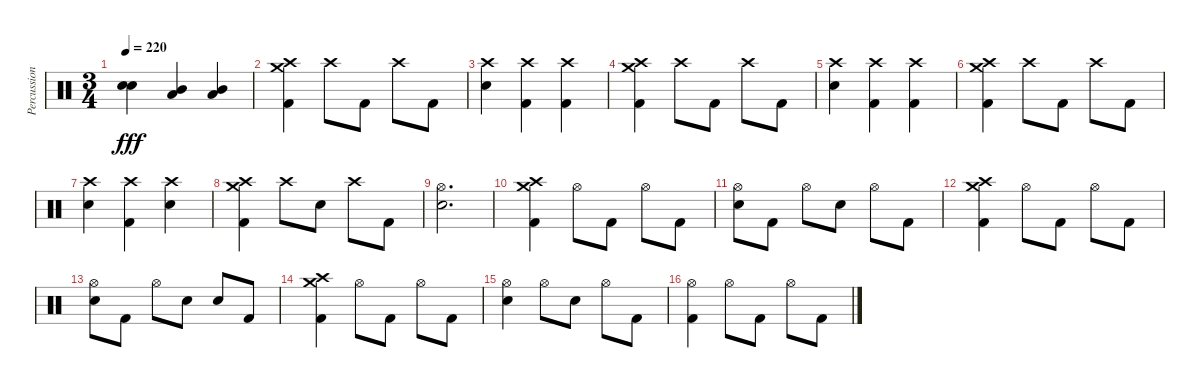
\track ("Percussions" "Percussion") {instrument percussion}
\staff {score}
\articulation defaults
\ts (3 4)
\tempo 220
\clef neutral
\ks c
("Electric Snare (hit)" "Electric Snare (hit)").4{bd 240 dy fff} ("Mid Tom (hit)" "Low Tom (hit)").4{bd 240} ("Low Floor Tom (hit)" "Mid Tom (hit)").4{bd 240} |
("Crash high (hit)" "Crash medium (hit)" "Kick (hit) 2").4{bd 240} "Crash high (hit)".8 "Kick (hit) 2".8 "Crash high (hit)".8 "Kick (hit) 2".8 |
("Crash high (hit)" "Electric Snare (hit)").4 ("Crash high (hit)" "Kick (hit) 2").4 ("Crash high (hit)" "Kick (hit) 2").4 |
("Crash high (hit)" "Crash medium (hit)" "Kick (hit) 2").4 "Crash high (hit)".8 "Kick (hit) 2".8 "Crash high (hit)".8 "Kick (hit) 2".8 |
("Crash high (hit)" "Electric Snare (hit)").4 ("Crash high (hit)" "Kick (hit) 2").4 ("Crash high (hit)" "Kick (hit) 2").4 |
("Crash high (hit)" "Crash medium (hit)" "Kick (hit) 2").4 "Crash high (hit)".8 "Kick (hit) 2".8 "Crash high (hit)".8 "Kick (hit) 2".8 |
("Crash high (hit)" "Electric Snare (hit)").4 ("Crash high (hit)" "Kick (hit) 2").4 ("Crash high (hit)" "Electric Snare (hit)").4 |
("Crash high (hit)" "Crash medium (hit)" "Kick (hit) 2").4 "Crash high (hit)".8 "Electric Snare (hit)".8 "Crash high (hit)".8 "Kick (hit) 2".8 |
("Hi-Hat (open)" "Electric Snare (hit)").2{d} |
("Crash high (hit)" "Crash medium (hit)" "Kick (hit) 2").4{bd 240} "Hi-Hat (open)".8 "Kick (hit) 2".8 "Hi-Hat (open)".8 "Kick (hit) 2".8 |
("Hi-Hat (open)" "Electric Snare (hit)").8 "Kick (hit) 2".8 "Hi-Hat (open)".8 "Electric Snare (hit)".8 "Hi-Hat (open)".8 "Kick (hit) 2".8 |
("Crash high (hit)" "Crash medium (hit)" "Kick (hit) 2").4{bd 240} "Hi-Hat (open)".8 "Kick (hit) 2".8 "Hi-Hat (open)".8 "Kick (hit) 2".8 |
("Hi-Hat (open)" "Electric Snare (hit)").8 "Kick (hit) 2".8 "Hi-Hat (open)".8 "Electric Snare (hit)".8 "Electric Snare (hit)".8 "Kick (hit) 2".8 |
("Crash high (hit)" "Crash medium (hit)" "Kick (hit) 2").4{bd 240} "Hi-Hat (open)".8 "Kick (hit) 2".8 "Hi-Hat (open)".8 "Kick (hit) 2".8 |
("Hi-Hat (open)" "Electric Snare (hit)").4 "Hi-Hat (open)".8 "Electric Snare (hit)".8 "Hi-Hat (open)".8 "Kick (hit) 2".8 |
("Hi-Hat (open)" "Kick (hit) 2").4 "Hi-Hat (open)".8 "Kick (hit) 2".8 "Hi-Hat (open)".8 "Kick (hit) 2".8
